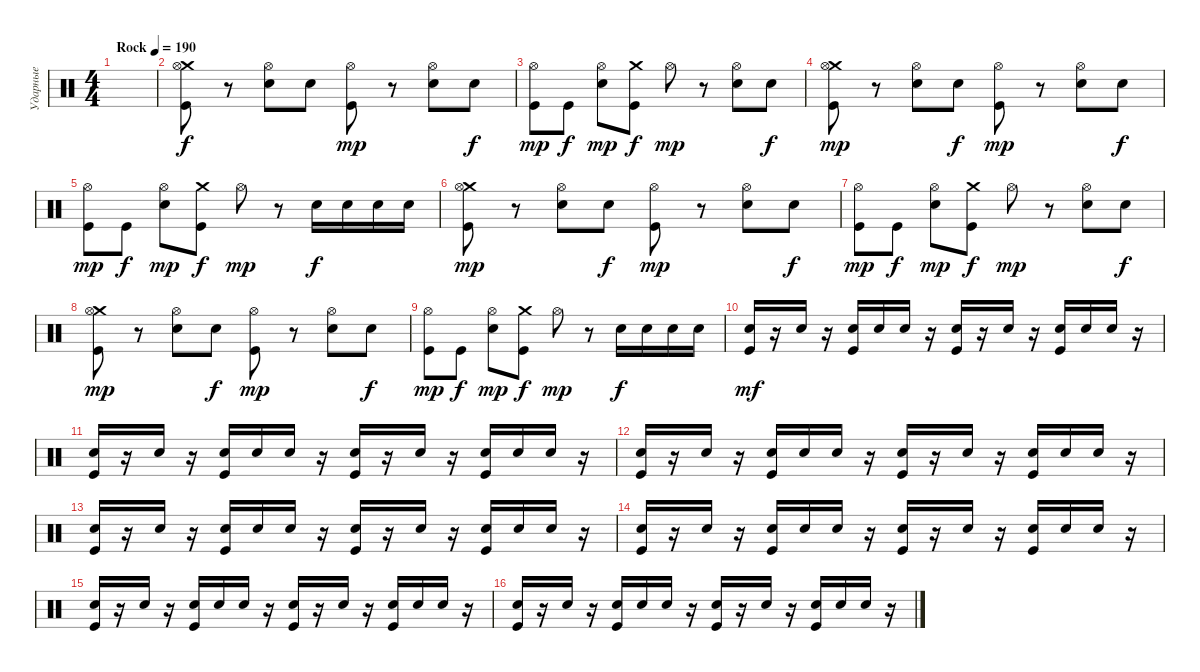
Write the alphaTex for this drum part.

\track ("Ударные" "Ударные") {instrument percussion}
\staff {score}
\articulation defaults
\ts (4 4)
\tempo (190 "Rock")
\clef neutral
\ks c
|
("Crash medium (hit)" "Kick (hit)" "Hi-Hat (open)").8 r.8 ("Electric Snare (hit)" "Hi-Hat (open)").8 "Electric Snare (hit)".8{dy f} ("Kick (hit)" "Hi-Hat (open)").8{dy mp} r.8 ("Electric Snare (hit)" "Hi-Hat (open)").8 "Electric Snare (hit)".8{dy f} |
("Kick (hit)" "Hi-Hat (open)").8{dy mp} "Kick (hit)".8{dy f} ("Electric Snare (hit)" "Hi-Hat (open)").8{dy mp} ("Crash medium (hit)" "Kick (hit)").8{dy f} "Hi-Hat (open)".8{dy mp} r.8 ("Electric Snare (hit)" "Hi-Hat (open)").8 "Electric Snare (hit)".8{dy f} |
("Crash medium (hit)" "Kick (hit)" "Hi-Hat (open)").8{dy mp} r.8 ("Electric Snare (hit)" "Hi-Hat (open)").8 "Electric Snare (hit)".8{dy f} ("Kick (hit)" "Hi-Hat (open)").8{dy mp} r.8 ("Electric Snare (hit)" "Hi-Hat (open)").8 "Electric Snare (hit)".8{dy f} |
("Kick (hit)" "Hi-Hat (open)").8{dy mp} "Kick (hit)".8{dy f} ("Electric Snare (hit)" "Hi-Hat (open)").8{dy mp} ("Crash medium (hit)" "Kick (hit)").8{dy f} "Hi-Hat (open)".8{dy mp} r.8 "Electric Snare (hit)".16{dy f} "Electric Snare (hit)".16 "Electric Snare (hit)".16 "Electric Snare (hit)".16 |
("Crash medium (hit)" "Kick (hit)" "Hi-Hat (open)").8{dy mp} r.8 ("Electric Snare (hit)" "Hi-Hat (open)").8 "Electric Snare (hit)".8{dy f} ("Kick (hit)" "Hi-Hat (open)").8{dy mp} r.8 ("Electric Snare (hit)" "Hi-Hat (open)").8 "Electric Snare (hit)".8{dy f} |
("Kick (hit)" "Hi-Hat (open)").8{dy mp} "Kick (hit)".8{dy f} ("Electric Snare (hit)" "Hi-Hat (open)").8{dy mp} ("Crash medium (hit)" "Kick (hit)").8{dy f} "Hi-Hat (open)".8{dy mp} r.8 ("Electric Snare (hit)" "Hi-Hat (open)").8 "Electric Snare (hit)".8{dy f} |
("Crash medium (hit)" "Kick (hit)" "Hi-Hat (open)").8{dy mp} r.8 ("Electric Snare (hit)" "Hi-Hat (open)").8 "Electric Snare (hit)".8{dy f} ("Kick (hit)" "Hi-Hat (open)").8{dy mp} r.8 ("Electric Snare (hit)" "Hi-Hat (open)").8 "Electric Snare (hit)".8{dy f} |
("Kick (hit)" "Hi-Hat (open)").8{dy mp} "Kick (hit)".8{dy f} ("Electric Snare (hit)" "Hi-Hat (open)").8{dy mp} ("Crash medium (hit)" "Kick (hit)").8{dy f} "Hi-Hat (open)".8{dy mp} r.8 "Electric Snare (hit)".16{dy f} "Electric Snare (hit)".16 "Electric Snare (hit)".16 "Electric Snare (hit)".16 |
("Electric Snare (hit)" "Kick (hit)").16{dy mf} r.16 "Electric Snare (hit)".16 r.16 ("Electric Snare (hit)" "Kick (hit)").16 "Electric Snare (hit)".16 "Electric Snare (hit)".16 r.16 ("Electric Snare (hit)" "Kick (hit)").16 r.16 "Electric Snare (hit)".16 r.16 ("Electric Snare (hit)" "Kick (hit)").16 "Electric Snare (hit)".16 "Electric Snare (hit)".16 r.16 |
("Electric Snare (hit)" "Kick (hit)").16 r.16 "Electric Snare (hit)".16 r.16 ("Electric Snare (hit)" "Kick (hit)").16 "Electric Snare (hit)".16 "Electric Snare (hit)".16 r.16 ("Electric Snare (hit)" "Kick (hit)").16 r.16 "Electric Snare (hit)".16 r.16 ("Electric Snare (hit)" "Kick (hit)").16 "Electric Snare (hit)".16 "Electric Snare (hit)".16 r.16 |
("Electric Snare (hit)" "Kick (hit)").16 r.16 "Electric Snare (hit)".16 r.16 ("Electric Snare (hit)" "Kick (hit)").16 "Electric Snare (hit)".16 "Electric Snare (hit)".16 r.16 ("Electric Snare (hit)" "Kick (hit)").16 r.16 "Electric Snare (hit)".16 r.16 ("Electric Snare (hit)" "Kick (hit)").16 "Electric Snare (hit)".16 "Electric Snare (hit)".16 r.16 |
("Electric Snare (hit)" "Kick (hit)").16 r.16 "Electric Snare (hit)".16 r.16 ("Electric Snare (hit)" "Kick (hit)").16 "Electric Snare (hit)".16 "Electric Snare (hit)".16 r.16 ("Electric Snare (hit)" "Kick (hit)").16 r.16 "Electric Snare (hit)".16 r.16 ("Electric Snare (hit)" "Kick (hit)").16 "Electric Snare (hit)".16 "Electric Snare (hit)".16 r.16 |
("Electric Snare (hit)" "Kick (hit)").16 r.16 "Electric Snare (hit)".16 r.16 ("Electric Snare (hit)" "Kick (hit)").16 "Electric Snare (hit)".16 "Electric Snare (hit)".16 r.16 ("Electric Snare (hit)" "Kick (hit)").16 r.16 "Electric Snare (hit)".16 r.16 ("Electric Snare (hit)" "Kick (hit)").16 "Electric Snare (hit)".16 "Electric Snare (hit)".16 r.16 |
("Electric Snare (hit)" "Kick (hit)").16 r.16 "Electric Snare (hit)".16 r.16 ("Electric Snare (hit)" "Kick (hit)").16 "Electric Snare (hit)".16 "Electric Snare (hit)".16 r.16 ("Electric Snare (hit)" "Kick (hit)").16 r.16 "Electric Snare (hit)".16 r.16 ("Electric Snare (hit)" "Kick (hit)").16 "Electric Snare (hit)".16 "Electric Snare (hit)".16 r.16 |
("Electric Snare (hit)" "Kick (hit)").16 r.16 "Electric Snare (hit)".16 r.16 ("Electric Snare (hit)" "Kick (hit)").16 "Electric Snare (hit)".16 "Electric Snare (hit)".16 r.16 ("Electric Snare (hit)" "Kick (hit)").16 r.16 "Electric Snare (hit)".16 r.16 ("Electric Snare (hit)" "Kick (hit)").16 "Electric Snare (hit)".16 "Electric Snare (hit)".16 r.16
